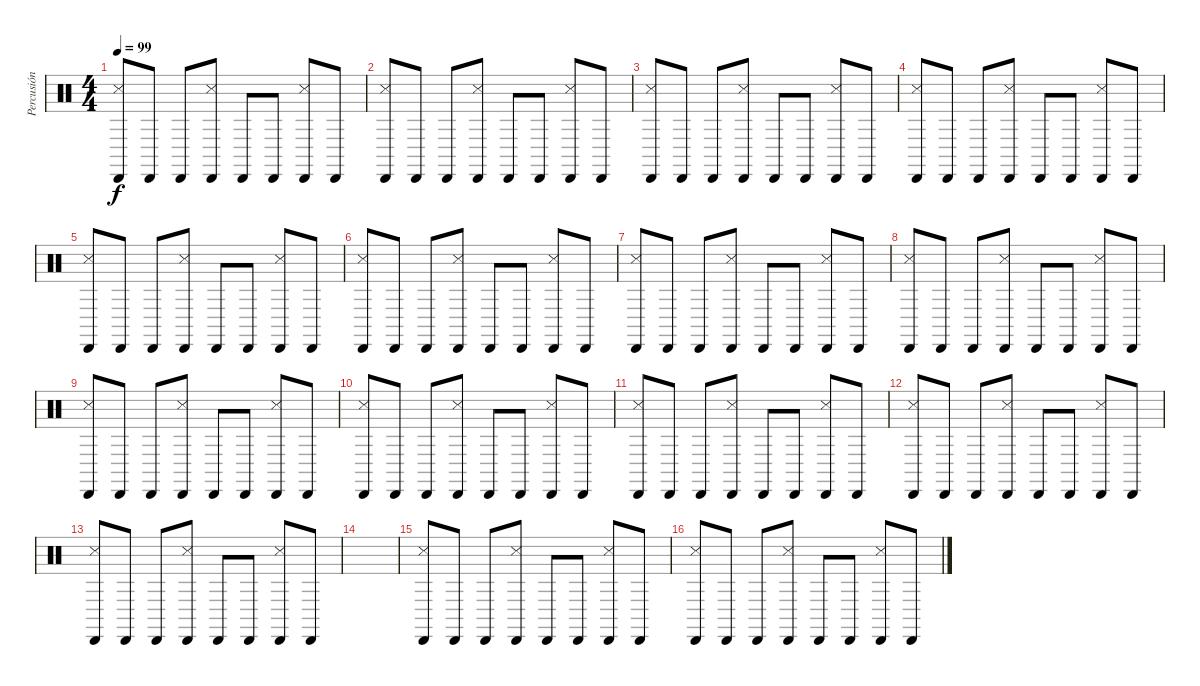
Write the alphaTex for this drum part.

\track ("Percusión" "Percusión") {instrument percussion}
\staff {score}
\articulation defaults
\ts (4 4)
\tempo 99
\clef neutral
\ks c
("Cabasa (hit)" "Metronome (hit)").8{dy f} "Cabasa (hit)".8 "Cabasa (hit)".8 ("Cabasa (hit)" "Metronome (hit)").8 "Cabasa (hit)".8 "Cabasa (hit)".8 ("Cabasa (hit)" "Metronome (hit)").8 "Cabasa (hit)".8 |
("Cabasa (hit)" "Metronome (hit)").8 "Cabasa (hit)".8 "Cabasa (hit)".8 ("Cabasa (hit)" "Metronome (hit)").8 "Cabasa (hit)".8 "Cabasa (hit)".8 ("Cabasa (hit)" "Metronome (hit)").8 "Cabasa (hit)".8 |
("Cabasa (hit)" "Metronome (hit)").8 "Cabasa (hit)".8 "Cabasa (hit)".8 ("Cabasa (hit)" "Metronome (hit)").8 "Cabasa (hit)".8 "Cabasa (hit)".8 ("Cabasa (hit)" "Metronome (hit)").8 "Cabasa (hit)".8 |
("Cabasa (hit)" "Metronome (hit)").8 "Cabasa (hit)".8 "Cabasa (hit)".8 ("Cabasa (hit)" "Metronome (hit)").8 "Cabasa (hit)".8 "Cabasa (hit)".8 ("Cabasa (hit)" "Metronome (hit)").8 "Cabasa (hit)".8 |
("Cabasa (hit)" "Metronome (hit)").8 "Cabasa (hit)".8 "Cabasa (hit)".8 ("Cabasa (hit)" "Metronome (hit)").8 "Cabasa (hit)".8 "Cabasa (hit)".8 ("Cabasa (hit)" "Metronome (hit)").8 "Cabasa (hit)".8 |
("Cabasa (hit)" "Metronome (hit)").8 "Cabasa (hit)".8 "Cabasa (hit)".8 ("Cabasa (hit)" "Metronome (hit)").8 "Cabasa (hit)".8 "Cabasa (hit)".8 ("Cabasa (hit)" "Metronome (hit)").8 "Cabasa (hit)".8 |
("Cabasa (hit)" "Metronome (hit)").8 "Cabasa (hit)".8 "Cabasa (hit)".8 ("Cabasa (hit)" "Metronome (hit)").8 "Cabasa (hit)".8 "Cabasa (hit)".8 ("Cabasa (hit)" "Metronome (hit)").8 "Cabasa (hit)".8 |
("Cabasa (hit)" "Metronome (hit)").8 "Cabasa (hit)".8 "Cabasa (hit)".8 ("Cabasa (hit)" "Metronome (hit)").8 "Cabasa (hit)".8 "Cabasa (hit)".8 ("Cabasa (hit)" "Metronome (hit)").8 "Cabasa (hit)".8 |
("Cabasa (hit)" "Metronome (hit)").8 "Cabasa (hit)".8 "Cabasa (hit)".8 ("Cabasa (hit)" "Metronome (hit)").8 "Cabasa (hit)".8 "Cabasa (hit)".8 ("Cabasa (hit)" "Metronome (hit)").8 "Cabasa (hit)".8 |
("Cabasa (hit)" "Metronome (hit)").8 "Cabasa (hit)".8 "Cabasa (hit)".8 ("Cabasa (hit)" "Metronome (hit)").8 "Cabasa (hit)".8 "Cabasa (hit)".8 ("Cabasa (hit)" "Metronome (hit)").8 "Cabasa (hit)".8 |
("Cabasa (hit)" "Metronome (hit)").8 "Cabasa (hit)".8 "Cabasa (hit)".8 ("Cabasa (hit)" "Metronome (hit)").8 "Cabasa (hit)".8 "Cabasa (hit)".8 ("Cabasa (hit)" "Metronome (hit)").8 "Cabasa (hit)".8 |
("Cabasa (hit)" "Metronome (hit)").8 "Cabasa (hit)".8 "Cabasa (hit)".8 ("Cabasa (hit)" "Metronome (hit)").8 "Cabasa (hit)".8 "Cabasa (hit)".8 ("Cabasa (hit)" "Metronome (hit)").8 "Cabasa (hit)".8 |
("Cabasa (hit)" "Metronome (hit)").8 "Cabasa (hit)".8 "Cabasa (hit)".8 ("Cabasa (hit)" "Metronome (hit)").8 "Cabasa (hit)".8 "Cabasa (hit)".8 ("Cabasa (hit)" "Metronome (hit)").8 "Cabasa (hit)".8 |
|
("Cabasa (hit)" "Metronome (hit)").8 "Cabasa (hit)".8 "Cabasa (hit)".8 ("Cabasa (hit)" "Metronome (hit)").8 "Cabasa (hit)".8 "Cabasa (hit)".8 ("Cabasa (hit)" "Metronome (hit)").8 "Cabasa (hit)".8 |
("Cabasa (hit)" "Metronome (hit)").8 "Cabasa (hit)".8 "Cabasa (hit)".8 ("Cabasa (hit)" "Metronome (hit)").8 "Cabasa (hit)".8 "Cabasa (hit)".8 ("Cabasa (hit)" "Metronome (hit)").8 "Cabasa (hit)".8
